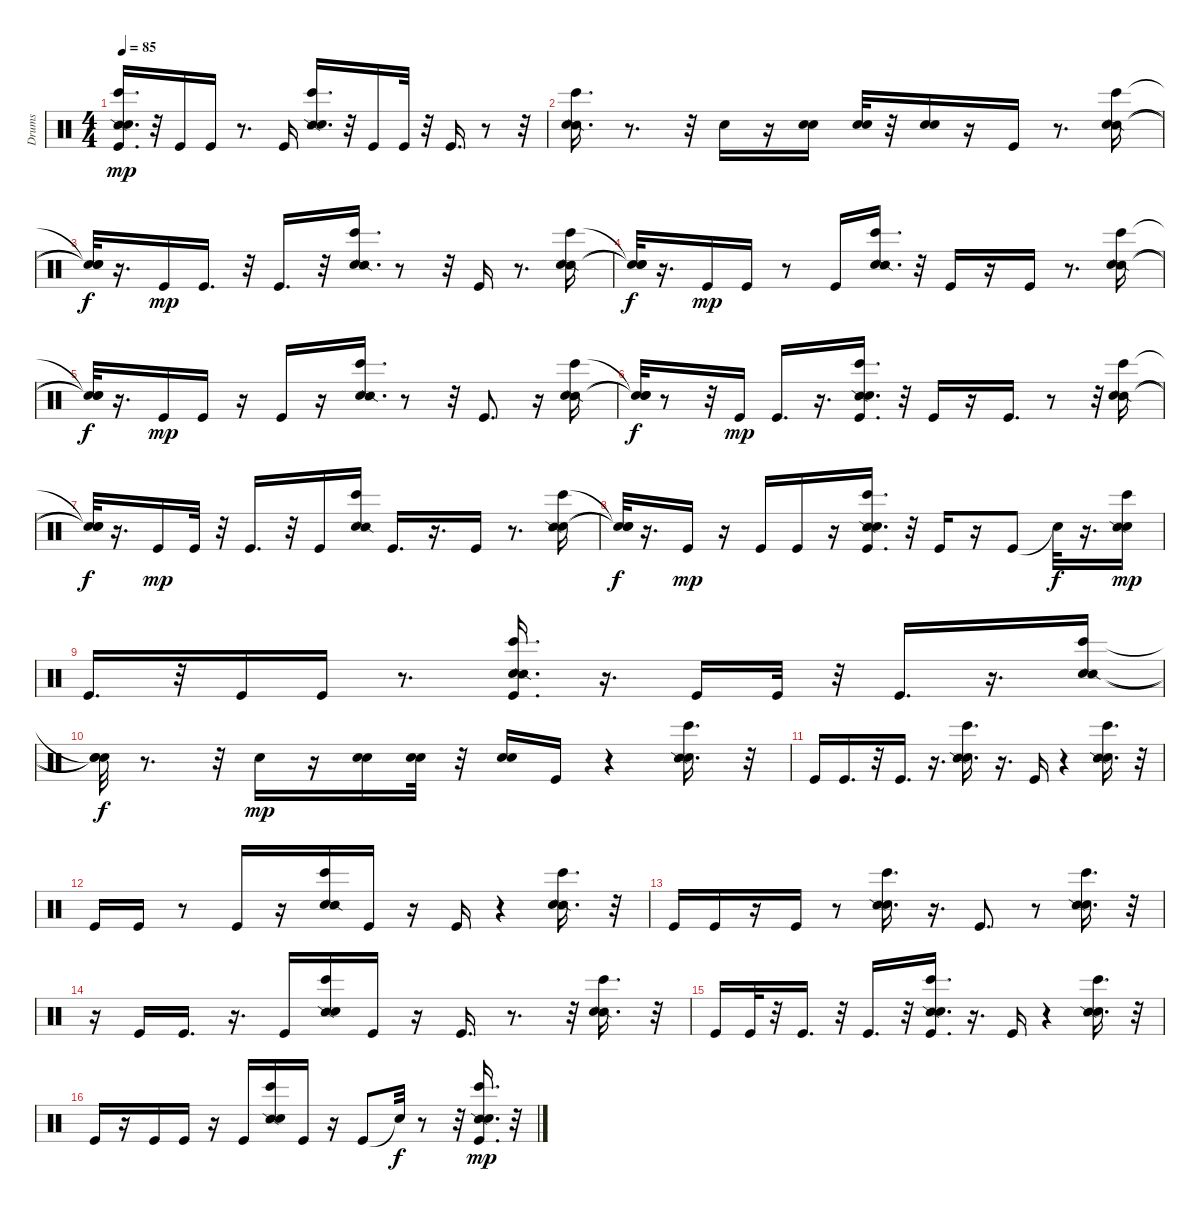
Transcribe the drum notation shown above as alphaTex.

\track ("Drums" "Drums") {instrument percussion}
\staff {score}
\articulation defaults
\ts (4 4)
\tempo 85
\clef neutral
\ks c
("Kick (hit)" "Snare (side stick) 2" "Bongo High (hit)" "Electric Snare (hit)").16{d dy mp} r.32 "Kick (hit)".16 "Kick (hit)".16 r.8{d} "Kick (hit)".16 ("Bongo High (hit)" "Snare (side stick) 2" "Electric Snare (hit)").16{d} r.32 "Kick (hit)".16 "Kick (hit)".32 r.32 "Kick (hit)".16{d} r.8 r.32 |
("Bongo High (hit)" "Snare (side stick) 2" "Electric Snare (hit)").16{d} r.8{d} r.32 "Electric Snare (hit)".16 r.16 ("Electric Snare (hit)" "Electric Snare (hit)").16 ("Electric Snare (hit)" "Electric Snare (hit)").32 r.32 ("Electric Snare (hit)" "Electric Snare (hit)").16 r.16 "Kick (hit)".16 r.8{d} ("Bongo High (hit)" "Snare (side stick) 2" "Electric Snare (hit)").16 |
("Snare (hit)"{t} "Snare (hit)"{t} "Snare (hit)"{t}).32{dy f} r.16{d} "Kick (hit)".16{dy mp} "Kick (hit)".16{d} r.32 "Kick (hit)".16{d} r.32 ("Electric Snare (hit)" "Snare (side stick) 2" "Bongo High (hit)").16{d} r.8 r.32 "Kick (hit)".16 r.8{d} ("Bongo High (hit)" "Snare (side stick) 2" "Electric Snare (hit)").16 |
("Snare (hit)"{t} "Snare (hit)"{t} "Snare (hit)"{t}).32{dy f} r.16{d} "Kick (hit)".16{dy mp} "Kick (hit)".16 r.8 "Kick (hit)".16 ("Bongo High (hit)" "Electric Snare (hit)" "Snare (side stick) 2").16{d} r.32 "Kick (hit)".16 r.16 "Kick (hit)".16 r.8{d} ("Snare (side stick) 2" "Electric Snare (hit)" "Bongo High (hit)").16 |
("Snare (hit)"{t} "Snare (hit)"{t} "Snare (hit)"{t}).32{dy f} r.16{d} "Kick (hit)".16{dy mp} "Kick (hit)".16 r.16 "Kick (hit)".16 r.16 ("Electric Snare (hit)" "Bongo High (hit)" "Snare (side stick) 2").16{d} r.8 r.32 "Kick (hit)".8{d} r.16 ("Snare (side stick) 2" "Bongo High (hit)" "Electric Snare (hit)").16 |
("Snare (hit)"{t} "Snare (hit)"{t} "Snare (hit)"{t}).32{dy f} r.8 r.32 "Kick (hit)".16{dy mp} "Kick (hit)".16{d} r.16{d} ("Snare (side stick) 2" "Electric Snare (hit)" "Kick (hit)" "Bongo High (hit)").16{d} r.32 "Kick (hit)".16 r.16 "Kick (hit)".16{d} r.8 r.32 ("Snare (side stick) 2" "Bongo High (hit)" "Electric Snare (hit)").16 |
("Snare (hit)"{t} "Snare (hit)"{t} "Snare (hit)"{t}).32{dy f} r.16{d} "Kick (hit)".16{dy mp} "Kick (hit)".32 r.32 "Kick (hit)".16{d} r.32 "Kick (hit)".16 ("Electric Snare (hit)" "Bongo High (hit)" "Snare (side stick) 2").16 "Kick (hit)".16{d} r.16{d} "Kick (hit)".16 r.8{d} ("Electric Snare (hit)" "Bongo High (hit)" "Snare (side stick) 2").16 |
("Snare (hit)"{t} "Snare (hit)"{t} "Snare (hit)"{t}).32{dy f} r.16{d} "Kick (hit)".16{dy mp} r.16 "Kick (hit)".16 "Kick (hit)".16 r.16 ("Kick (hit)" "Snare (side stick) 2" "Electric Snare (hit)" "Bongo High (hit)").16{d} r.32 "Kick (hit)".16 r.16 "Kick (hit)".8 "Snare (hit)"{t}.32{dy f} r.16{d} ("Electric Snare (hit)" "Bongo High (hit)" "Snare (side stick) 2").16{dy mp} |
"Kick (hit)".16{d} r.32 "Kick (hit)".16 "Kick (hit)".16 r.8{d} ("Electric Snare (hit)" "Kick (hit)" "Snare (side stick) 2" "Bongo High (hit)").16{d} r.16{d} "Kick (hit)".16 "Kick (hit)".32 r.32 "Kick (hit)".16{d} r.16{d} ("Electric Snare (hit)" "Bongo High (hit)" "Snare (side stick) 2").16 |
("Snare (hit)"{t} "Snare (hit)"{t} "Snare (hit)"{t}).32{dy f} r.8{d} r.32 "Electric Snare (hit)".16{dy mp} r.16 ("Electric Snare (hit)" "Electric Snare (hit)").16 ("Electric Snare (hit)" "Electric Snare (hit)").32 r.32 ("Electric Snare (hit)" "Electric Snare (hit)").16 "Kick (hit)".16 r.4 ("Bongo High (hit)" "Electric Snare (hit)" "Snare (side stick) 2").16{d} r.32 |
"Kick (hit)".16 "Kick (hit)".16{d} r.32 "Kick (hit)".16{d} r.16{d} ("Electric Snare (hit)" "Bongo High (hit)" "Snare (side stick) 2").16{d} r.16{d} "Kick (hit)".16 r.4 ("Electric Snare (hit)" "Snare (side stick) 2" "Bongo High (hit)").16{d} r.32 |
"Kick (hit)".16 "Kick (hit)".16 r.8 "Kick (hit)".16 r.16 ("Electric Snare (hit)" "Snare (side stick) 2" "Bongo High (hit)").16 "Kick (hit)".16 r.16 "Kick (hit)".16 r.4 ("Bongo High (hit)" "Snare (side stick) 2" "Electric Snare (hit)").16{d} r.32 |
"Kick (hit)".16 "Kick (hit)".16 r.16 "Kick (hit)".16 r.8 ("Electric Snare (hit)" "Bongo High (hit)" "Snare (side stick) 2").16{d} r.16{d} "Kick (hit)".8{d} r.8 ("Bongo High (hit)" "Electric Snare (hit)" "Snare (side stick) 2").16{d} r.32 |
r.16 "Kick (hit)".16 "Kick (hit)".16{d} r.16{d} "Kick (hit)".16 ("Snare (side stick) 2" "Bongo High (hit)" "Electric Snare (hit)").16 "Kick (hit)".16 r.16 "Kick (hit)".16{d} r.8{d} r.32 ("Snare (side stick) 2" "Bongo High (hit)" "Electric Snare (hit)").16{d} r.32 |
"Kick (hit)".16 "Kick (hit)".32 r.32 "Kick (hit)".16{d} r.32 "Kick (hit)".16{d} r.32 ("Bongo High (hit)" "Kick (hit)" "Snare (side stick) 2" "Electric Snare (hit)").16{d} r.16{d} "Kick (hit)".16 r.4 ("Electric Snare (hit)" "Bongo High (hit)" "Snare (side stick) 2").16{d} r.32 |
"Kick (hit)".16 r.16 "Kick (hit)".16 "Kick (hit)".16 r.16 "Kick (hit)".16 ("Snare (side stick) 2" "Bongo High (hit)" "Electric Snare (hit)").16 "Kick (hit)".16 r.16 "Kick (hit)".8 "Snare (hit)"{t}.32{dy f} r.8 r.32 ("Kick (hit)" "Snare (side stick) 2" "Bongo High (hit)" "Electric Snare (hit)").16{d dy mp} r.32
